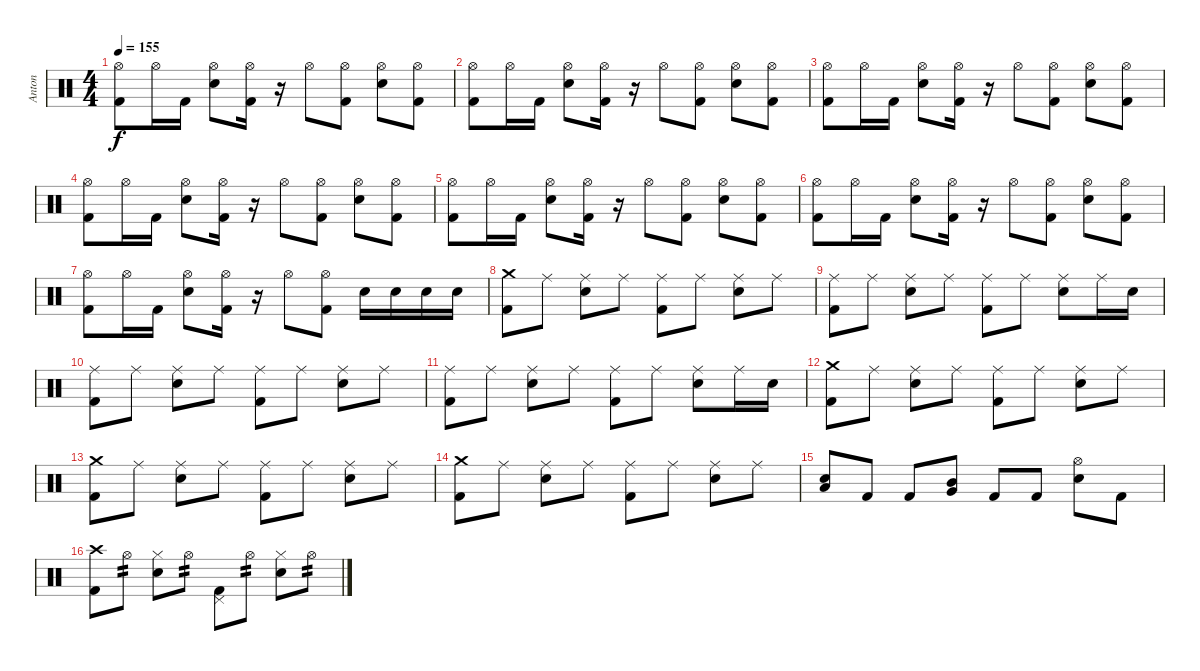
\track ("Anton" "Anton") {instrument percussion}
\staff {score}
\articulation defaults
\ts (4 4)
\tempo 155
\clef neutral
\ks c
("Kick (hit) 2" "Hi-Hat (open)").8{dy f} "Hi-Hat (open)".16 "Kick (hit) 2".16 ("Snare (hit) 2" "Hi-Hat (open)").8 ("Kick (hit) 2" "Hi-Hat (open)").16 r.16 "Hi-Hat (open)".8 ("Kick (hit) 2" "Hi-Hat (open)").8 ("Electric Snare (hit)" "Hi-Hat (open)").8 ("Kick (hit) 2" "Hi-Hat (open)").8 |
("Kick (hit) 2" "Hi-Hat (open)").8 "Hi-Hat (open)".16 "Kick (hit) 2".16 ("Snare (hit) 2" "Hi-Hat (open)").8 ("Kick (hit) 2" "Hi-Hat (open)").16 r.16 "Hi-Hat (open)".8 ("Kick (hit) 2" "Hi-Hat (open)").8 ("Electric Snare (hit)" "Hi-Hat (open)").8 ("Kick (hit) 2" "Hi-Hat (open)").8 |
("Kick (hit) 2" "Hi-Hat (open)").8 "Hi-Hat (open)".16 "Kick (hit) 2".16 ("Snare (hit) 2" "Hi-Hat (open)").8 ("Kick (hit) 2" "Hi-Hat (open)").16 r.16 "Hi-Hat (open)".8 ("Kick (hit) 2" "Hi-Hat (open)").8 ("Electric Snare (hit)" "Hi-Hat (open)").8 ("Kick (hit) 2" "Hi-Hat (open)").8 |
("Kick (hit) 2" "Hi-Hat (open)").8 "Hi-Hat (open)".16 "Kick (hit) 2".16 ("Snare (hit) 2" "Hi-Hat (open)").8 ("Kick (hit) 2" "Hi-Hat (open)").16 r.16 "Hi-Hat (open)".8 ("Kick (hit) 2" "Hi-Hat (open)").8 ("Electric Snare (hit)" "Hi-Hat (open)").8 ("Kick (hit) 2" "Hi-Hat (open)").8 |
("Kick (hit) 2" "Hi-Hat (open)").8 "Hi-Hat (open)".16 "Kick (hit) 2".16 ("Snare (hit) 2" "Hi-Hat (open)").8 ("Kick (hit) 2" "Hi-Hat (open)").16 r.16 "Hi-Hat (open)".8 ("Kick (hit) 2" "Hi-Hat (open)").8 ("Electric Snare (hit)" "Hi-Hat (open)").8 ("Kick (hit) 2" "Hi-Hat (open)").8 |
("Kick (hit) 2" "Hi-Hat (open)").8 "Hi-Hat (open)".16 "Kick (hit) 2".16 ("Snare (hit) 2" "Hi-Hat (open)").8 ("Kick (hit) 2" "Hi-Hat (open)").16 r.16 "Hi-Hat (open)".8 ("Kick (hit) 2" "Hi-Hat (open)").8 ("Electric Snare (hit)" "Hi-Hat (open)").8 ("Kick (hit) 2" "Hi-Hat (open)").8 |
("Kick (hit) 2" "Hi-Hat (open)").8 "Hi-Hat (open)".16 "Kick (hit) 2".16 ("Snare (hit) 2" "Hi-Hat (open)").8 ("Kick (hit) 2" "Hi-Hat (open)").16 r.16 "Hi-Hat (open)".8 ("Kick (hit) 2" "Hi-Hat (open)").8 "Snare (hit) 2".16 "Snare (hit) 2".16 "Snare (hit) 2".16 "Snare (hit) 2".16 |
("Kick (hit) 2" "Crash medium (hit)").8 "Ride (middle)".8 ("Snare (hit) 2" "Ride (middle)").8 "Ride (middle)".8 ("Kick (hit) 2" "Ride (middle)").8 "Ride (middle)".8 ("Snare (hit) 2" "Ride (middle)").8 "Ride (middle)".8 |
("Kick (hit) 2" "Ride (middle)").8 "Ride (middle)".8 ("Snare (hit) 2" "Ride (middle)").8 "Ride (middle)".8 ("Kick (hit) 2" "Ride (middle)").8 "Ride (middle)".8 ("Snare (hit) 2" "Ride (middle)").8 "Ride (middle)".16 "Snare (hit) 2".16 |
("Kick (hit) 2" "Ride (middle)").8 "Ride (middle)".8 ("Snare (hit) 2" "Ride (middle)").8 "Ride (middle)".8 ("Kick (hit) 2" "Ride (middle)").8 "Ride (middle)".8 ("Snare (hit) 2" "Ride (middle)").8 "Ride (middle)".8 |
("Kick (hit) 2" "Ride (middle)").8 "Ride (middle)".8 ("Snare (hit) 2" "Ride (middle)").8 "Ride (middle)".8 ("Kick (hit) 2" "Ride (middle)").8 "Ride (middle)".8 ("Snare (hit) 2" "Ride (middle)").8 "Ride (middle)".16 "Snare (hit) 2".16 |
("Kick (hit) 2" "Crash medium (hit)").8 "Ride (middle)".8 ("Snare (hit) 2" "Ride (middle)").8 "Ride (middle)".8 ("Kick (hit) 2" "Ride (middle)").8 "Ride (middle)".8 ("Snare (hit) 2" "Ride (middle)").8 "Ride (middle)".8 |
("Kick (hit) 2" "Crash medium (hit)").8 "Ride (middle)".8 ("Snare (hit) 2" "Ride (middle)").8 "Ride (middle)".8 ("Kick (hit) 2" "Ride (middle)").8 "Ride (middle)".8 ("Snare (hit) 2" "Ride (middle)").8 "Ride (middle)".8 |
("Kick (hit) 2" "Crash medium (hit)").8 "Ride (middle)".8 ("Snare (hit) 2" "Ride (middle)").8 "Ride (middle)".8 ("Kick (hit) 2" "Ride (middle)").8 "Ride (middle)".8 ("Snare (hit) 2" "Ride (middle)").8 "Ride (middle)".8 |
("Snare (hit) 2" "Low Tom (hit)").8 "Kick (hit) 2".8 "Kick (hit) 2".8 ("Mid Tom (hit)" "Very Low Tom (hit)").8 "Kick (hit) 2".8 "Kick (hit) 2".8 ("Snare (hit) 2" "Hi-Hat (open)").8 "Kick (hit) 2".8 |
("Kick (hit) 2" "Crash high (hit)").8 "Hi-Hat (open)".8{tp 2} ("Electric Snare (hit)" "Hi-Hat (closed)").8 "Hi-Hat (open)".8{tp 2} ("Kick (hit) 2" "Pedal Hi-Hat (hit)").8 "Hi-Hat (open)".8{tp 2} ("Electric Snare (hit)" "Hi-Hat (closed)").8 "Hi-Hat (open)".8{tp 2}
